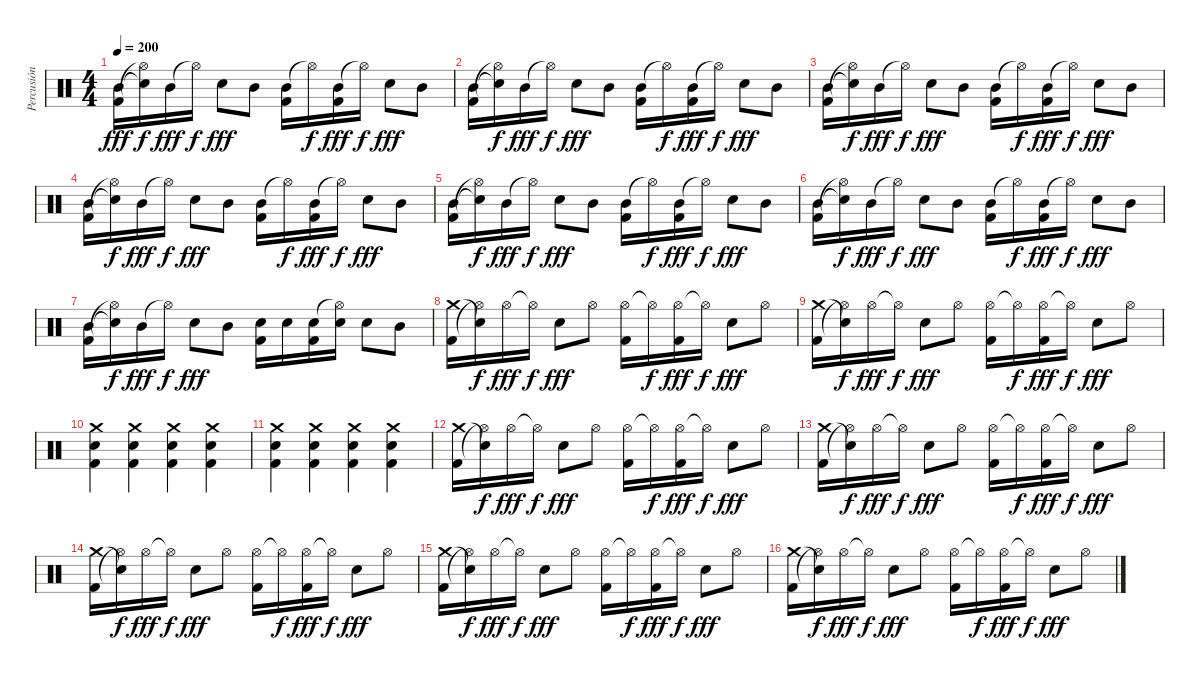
\track ("Percusión" "Percusión") {instrument percussion}
\staff {score}
\articulation defaults
\ts (4 4)
\tempo 200
\clef neutral
\ks c
("Mid Tom (hit)" "Kick (hit) 2").16{dy fff} ("Snare (hit)"{t} "Hi-Hat (open)"{t}).16{dy f} "Mid Tom (hit)".16{dy fff} "Hi-Hat (open)"{t}.16{dy f} "Electric Snare (hit)".8{dy fff} "Mid Tom (hit)".8 ("Mid Tom (hit)" "Kick (hit) 2").16 "Hi-Hat (open)"{t}.16{dy f} ("Mid Tom (hit)" "Kick (hit) 2").16{dy fff} "Hi-Hat (open)"{t}.16{dy f} "Electric Snare (hit)".8{dy fff} "Mid Tom (hit)".8 |
("Mid Tom (hit)" "Kick (hit) 2").16 ("Snare (hit)"{t} "Hi-Hat (open)"{t}).16{dy f} "Mid Tom (hit)".16{dy fff} "Hi-Hat (open)"{t}.16{dy f} "Electric Snare (hit)".8{dy fff} "Mid Tom (hit)".8 ("Mid Tom (hit)" "Kick (hit) 2").16 "Hi-Hat (open)"{t}.16{dy f} ("Mid Tom (hit)" "Kick (hit) 2").16{dy fff} "Hi-Hat (open)"{t}.16{dy f} "Electric Snare (hit)".8{dy fff} "Mid Tom (hit)".8 |
("Mid Tom (hit)" "Kick (hit) 2").16 ("Snare (hit)"{t} "Hi-Hat (open)"{t}).16{dy f} "Mid Tom (hit)".16{dy fff} "Hi-Hat (open)"{t}.16{dy f} "Electric Snare (hit)".8{dy fff} "Mid Tom (hit)".8 ("Mid Tom (hit)" "Kick (hit) 2").16 "Hi-Hat (open)"{t}.16{dy f} ("Mid Tom (hit)" "Kick (hit) 2").16{dy fff} "Hi-Hat (open)"{t}.16{dy f} "Electric Snare (hit)".8{dy fff} "Mid Tom (hit)".8 |
("Mid Tom (hit)" "Kick (hit) 2").16 ("Snare (hit)"{t} "Hi-Hat (open)"{t}).16{dy f} "Mid Tom (hit)".16{dy fff} "Hi-Hat (open)"{t}.16{dy f} "Electric Snare (hit)".8{dy fff} "Mid Tom (hit)".8 ("Mid Tom (hit)" "Kick (hit) 2").16 "Hi-Hat (open)"{t}.16{dy f} ("Mid Tom (hit)" "Kick (hit) 2").16{dy fff} "Hi-Hat (open)"{t}.16{dy f} "Electric Snare (hit)".8{dy fff} "Mid Tom (hit)".8 |
("Mid Tom (hit)" "Kick (hit) 2").16 ("Snare (hit)"{t} "Hi-Hat (open)"{t}).16{dy f} "Mid Tom (hit)".16{dy fff} "Hi-Hat (open)"{t}.16{dy f} "Electric Snare (hit)".8{dy fff} "Mid Tom (hit)".8 ("Mid Tom (hit)" "Kick (hit) 2").16 "Hi-Hat (open)"{t}.16{dy f} ("Mid Tom (hit)" "Kick (hit) 2").16{dy fff} "Hi-Hat (open)"{t}.16{dy f} "Electric Snare (hit)".8{dy fff} "Mid Tom (hit)".8 |
("Mid Tom (hit)" "Kick (hit) 2").16 ("Snare (hit)"{t} "Hi-Hat (open)"{t}).16{dy f} "Mid Tom (hit)".16{dy fff} "Hi-Hat (open)"{t}.16{dy f} "Electric Snare (hit)".8{dy fff} "Mid Tom (hit)".8 ("Mid Tom (hit)" "Kick (hit) 2").16 "Hi-Hat (open)"{t}.16{dy f} ("Mid Tom (hit)" "Kick (hit) 2").16{dy fff} "Hi-Hat (open)"{t}.16{dy f} "Electric Snare (hit)".8{dy fff} "Mid Tom (hit)".8 |
("Mid Tom (hit)" "Kick (hit) 2").16 ("Snare (hit)"{t} "Hi-Hat (open)"{t}).16{dy f} "Mid Tom (hit)".16{dy fff} "Hi-Hat (open)"{t}.16{dy f} "Electric Snare (hit)".8{dy fff} "Mid Tom (hit)".8 ("Electric Snare (hit)" "Kick (hit) 2").16 "Electric Snare (hit)".16 ("Electric Snare (hit)" "Kick (hit) 2").16 ("Hi-Hat (open)"{t} "Electric Snare (hit)").16 "Electric Snare (hit)".8 "Mid Tom (hit)".8 |
("Crash medium (hit)" "Kick (hit) 2").16 ("Snare (hit)"{t} "Hi-Hat (open)"{t}).16{dy f} "Hi-Hat (open)".16{dy fff} "Hi-Hat (open)"{t}.16{dy f} "Electric Snare (hit)".8{dy fff} "Hi-Hat (open)".8 ("Hi-Hat (open)" "Kick (hit) 2").16 "Hi-Hat (open)"{t}.16{dy f} ("Hi-Hat (open)" "Kick (hit) 2").16{dy fff} "Hi-Hat (open)"{t}.16{dy f} "Electric Snare (hit)".8{dy fff} "Hi-Hat (open)".8 |
("Crash medium (hit)" "Kick (hit) 2").16 ("Snare (hit)"{t} "Hi-Hat (open)"{t}).16{dy f} "Hi-Hat (open)".16{dy fff} "Hi-Hat (open)"{t}.16{dy f} "Electric Snare (hit)".8{dy fff} "Hi-Hat (open)".8 ("Hi-Hat (open)" "Kick (hit) 2").16 "Hi-Hat (open)"{t}.16{dy f} ("Hi-Hat (open)" "Kick (hit) 2").16{dy fff} "Hi-Hat (open)"{t}.16{dy f} "Electric Snare (hit)".8{dy fff} "Hi-Hat (open)".8 |
("Crash medium (hit)" "Electric Snare (hit)" "Kick (hit) 2").4 ("Crash medium (hit)" "Electric Snare (hit)" "Kick (hit) 2").4 ("Crash medium (hit)" "Electric Snare (hit)" "Kick (hit) 2").4 ("Crash medium (hit)" "Electric Snare (hit)" "Kick (hit) 2").4 |
("Crash medium (hit)" "Electric Snare (hit)" "Kick (hit) 2").4 ("Crash medium (hit)" "Electric Snare (hit)" "Kick (hit) 2").4 ("Crash medium (hit)" "Electric Snare (hit)" "Kick (hit) 2").4 ("Crash medium (hit)" "Electric Snare (hit)" "Kick (hit) 2").4 |
("Crash medium (hit)" "Kick (hit) 2").16 ("Snare (hit)"{t} "Hi-Hat (open)"{t}).16{dy f} "Hi-Hat (open)".16{dy fff} "Hi-Hat (open)"{t}.16{dy f} "Electric Snare (hit)".8{dy fff} "Hi-Hat (open)".8 ("Hi-Hat (open)" "Kick (hit) 2").16 "Hi-Hat (open)"{t}.16{dy f} ("Hi-Hat (open)" "Kick (hit) 2").16{dy fff} "Hi-Hat (open)"{t}.16{dy f} "Electric Snare (hit)".8{dy fff} "Hi-Hat (open)".8 |
("Crash medium (hit)" "Kick (hit) 2").16 ("Snare (hit)"{t} "Hi-Hat (open)"{t}).16{dy f} "Hi-Hat (open)".16{dy fff} "Hi-Hat (open)"{t}.16{dy f} "Electric Snare (hit)".8{dy fff} "Hi-Hat (open)".8 ("Hi-Hat (open)" "Kick (hit) 2").16 "Hi-Hat (open)"{t}.16{dy f} ("Hi-Hat (open)" "Kick (hit) 2").16{dy fff} "Hi-Hat (open)"{t}.16{dy f} "Electric Snare (hit)".8{dy fff} "Hi-Hat (open)".8 |
("Crash medium (hit)" "Kick (hit) 2").16 ("Snare (hit)"{t} "Hi-Hat (open)"{t}).16{dy f} "Hi-Hat (open)".16{dy fff} "Hi-Hat (open)"{t}.16{dy f} "Electric Snare (hit)".8{dy fff} "Hi-Hat (open)".8 ("Hi-Hat (open)" "Kick (hit) 2").16 "Hi-Hat (open)"{t}.16{dy f} ("Hi-Hat (open)" "Kick (hit) 2").16{dy fff} "Hi-Hat (open)"{t}.16{dy f} "Electric Snare (hit)".8{dy fff} "Hi-Hat (open)".8 |
("Crash medium (hit)" "Kick (hit) 2").16 ("Snare (hit)"{t} "Hi-Hat (open)"{t}).16{dy f} "Hi-Hat (open)".16{dy fff} "Hi-Hat (open)"{t}.16{dy f} "Electric Snare (hit)".8{dy fff} "Hi-Hat (open)".8 ("Hi-Hat (open)" "Kick (hit) 2").16 "Hi-Hat (open)"{t}.16{dy f} ("Hi-Hat (open)" "Kick (hit) 2").16{dy fff} "Hi-Hat (open)"{t}.16{dy f} "Electric Snare (hit)".8{dy fff} "Hi-Hat (open)".8 |
("Crash medium (hit)" "Kick (hit) 2").16 ("Snare (hit)"{t} "Hi-Hat (open)"{t}).16{dy f} "Hi-Hat (open)".16{dy fff} "Hi-Hat (open)"{t}.16{dy f} "Electric Snare (hit)".8{dy fff} "Hi-Hat (open)".8 ("Hi-Hat (open)" "Kick (hit) 2").16 "Hi-Hat (open)"{t}.16{dy f} ("Hi-Hat (open)" "Kick (hit) 2").16{dy fff} "Hi-Hat (open)"{t}.16{dy f} "Electric Snare (hit)".8{dy fff} "Hi-Hat (open)".8
